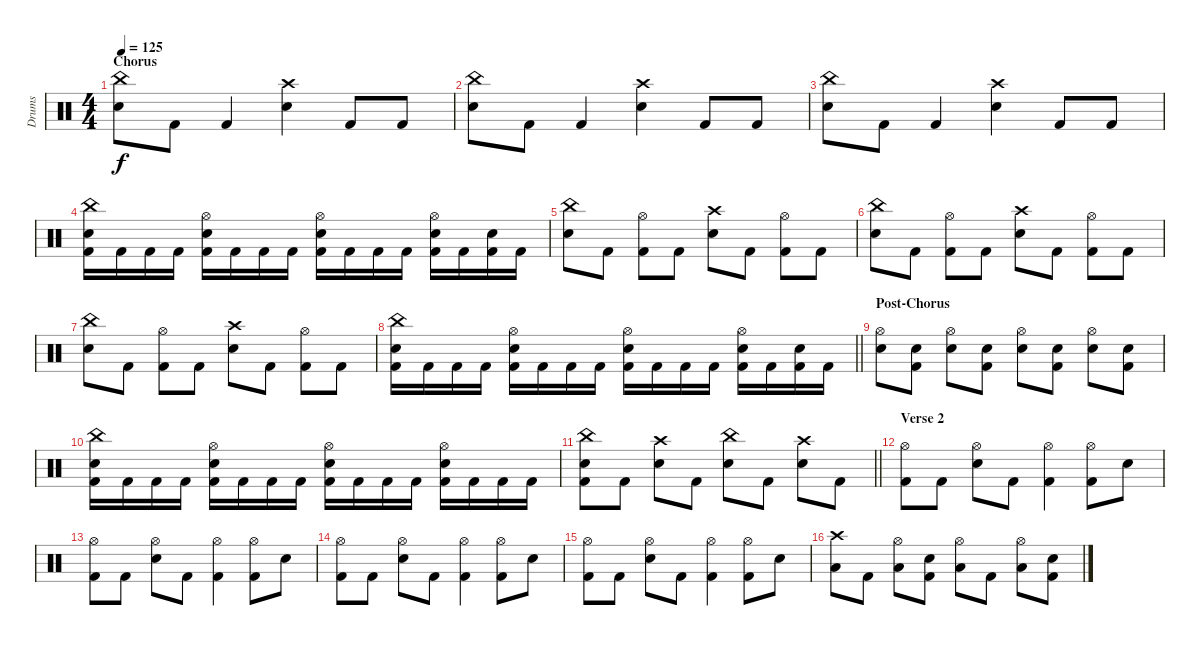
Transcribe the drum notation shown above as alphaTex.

\track ("Drums" "Drums") {instrument percussion}
\staff {score}
\articulation defaults
\ts (4 4)
\section ("" "Chorus")
\tempo 125
\clef neutral
\ks c
("China (hit)" "Electric Snare (hit)").8{dy f} "Kick (hit) 2".8 "Kick (hit) 2".4 ("Crash high (hit)" "Electric Snare (hit)").4 "Kick (hit) 2".8 "Kick (hit) 2".8 |
("China (hit)" "Electric Snare (hit)").8 "Kick (hit) 2".8 "Kick (hit) 2".4 ("Crash high (hit)" "Electric Snare (hit)").4 "Kick (hit) 2".8 "Kick (hit) 2".8 |
("China (hit)" "Electric Snare (hit)").8 "Kick (hit) 2".8 "Kick (hit) 2".4 ("Crash high (hit)" "Electric Snare (hit)").4 "Kick (hit) 2".8 "Kick (hit) 2".8 |
("China (hit)" "Kick (hit) 2" "Electric Snare (hit)").16 "Kick (hit) 2".16 "Kick (hit) 2".16 "Kick (hit) 2".16 ("Hi-Hat (open)" "Kick (hit) 2" "Electric Snare (hit)").16 "Kick (hit) 2".16 "Kick (hit) 2".16 "Kick (hit) 2".16 ("Hi-Hat (open)" "Kick (hit) 2" "Electric Snare (hit)").16 "Kick (hit) 2".16 "Kick (hit) 2".16 "Kick (hit) 2".16 ("Hi-Hat (open)" "Kick (hit) 2" "Electric Snare (hit)").16 "Kick (hit) 2".16 ("Kick (hit) 2" "Electric Snare (hit)").16 "Kick (hit) 2".16 |
("China (hit)" "Electric Snare (hit)").8 "Kick (hit) 2".8 ("Hi-Hat (open)" "Kick (hit) 2").8 "Kick (hit) 2".8 ("Crash high (hit)" "Electric Snare (hit)").8 "Kick (hit) 2".8 ("Hi-Hat (open)" "Kick (hit) 2").8 "Kick (hit) 2".8 |
("China (hit)" "Electric Snare (hit)").8 "Kick (hit) 2".8 ("Hi-Hat (open)" "Kick (hit) 2").8 "Kick (hit) 2".8 ("Crash high (hit)" "Electric Snare (hit)").8 "Kick (hit) 2".8 ("Hi-Hat (open)" "Kick (hit) 2").8 "Kick (hit) 2".8 |
("China (hit)" "Electric Snare (hit)").8 "Kick (hit) 2".8 ("Hi-Hat (open)" "Kick (hit) 2").8 "Kick (hit) 2".8 ("Crash high (hit)" "Electric Snare (hit)").8 "Kick (hit) 2".8 ("Hi-Hat (open)" "Kick (hit) 2").8 "Kick (hit) 2".8 |
\barLineRight lightlight
("China (hit)" "Kick (hit) 2" "Electric Snare (hit)").16 "Kick (hit) 2".16 "Kick (hit) 2".16 "Kick (hit) 2".16 ("Hi-Hat (open)" "Kick (hit) 2" "Electric Snare (hit)").16 "Kick (hit) 2".16 "Kick (hit) 2".16 "Kick (hit) 2".16 ("Hi-Hat (open)" "Kick (hit) 2" "Electric Snare (hit)").16 "Kick (hit) 2".16 "Kick (hit) 2".16 "Kick (hit) 2".16 ("Hi-Hat (open)" "Kick (hit) 2" "Electric Snare (hit)").16 "Kick (hit) 2".16 ("Kick (hit) 2" "Electric Snare (hit)").16 "Kick (hit) 2".16 |
\section ("" "Post-Chorus")
("Hi-Hat (open)" "Electric Snare (hit)").8 ("Kick (hit) 2" "Electric Snare (hit)").8 ("Hi-Hat (open)" "Electric Snare (hit)").8 ("Kick (hit) 2" "Electric Snare (hit)").8 ("Hi-Hat (open)" "Electric Snare (hit)").8 ("Kick (hit) 2" "Electric Snare (hit)").8 ("Hi-Hat (open)" "Electric Snare (hit)").8 ("Kick (hit) 2" "Electric Snare (hit)").8 |
("China (hit)" "Kick (hit) 2" "Electric Snare (hit)").16 "Kick (hit) 2".16 "Kick (hit) 2".16 "Kick (hit) 2".16 ("Hi-Hat (open)" "Kick (hit) 2" "Electric Snare (hit)").16 "Kick (hit) 2".16 "Kick (hit) 2".16 "Kick (hit) 2".16 ("Hi-Hat (open)" "Kick (hit) 2" "Electric Snare (hit)").16 "Kick (hit) 2".16 "Kick (hit) 2".16 "Kick (hit) 2".16 ("Hi-Hat (open)" "Kick (hit) 2" "Electric Snare (hit)").16 "Kick (hit) 2".16 "Kick (hit) 2".16 "Kick (hit) 2".16 |
\barLineRight lightlight
("China (hit)" "Kick (hit) 2" "Electric Snare (hit)").8 "Kick (hit) 2".8 ("Crash high (hit)" "Electric Snare (hit)").8 "Kick (hit) 2".8 ("China (hit)" "Electric Snare (hit)").8 "Kick (hit) 2".8 ("Crash high (hit)" "Electric Snare (hit)").8 "Kick (hit) 2".8 |
\section ("" "Verse 2")
("Hi-Hat (open)" "Kick (hit) 2").8 "Kick (hit) 2".8 ("Hi-Hat (open)" "Electric Snare (hit)").8 "Kick (hit) 2".8 ("Hi-Hat (open)" "Kick (hit) 2").4 ("Hi-Hat (open)" "Kick (hit) 2").8 "Electric Snare (hit)".8 |
("Hi-Hat (open)" "Kick (hit) 2").8 "Kick (hit) 2".8 ("Hi-Hat (open)" "Electric Snare (hit)").8 "Kick (hit) 2".8 ("Hi-Hat (open)" "Kick (hit) 2").4 ("Hi-Hat (open)" "Kick (hit) 2").8 "Electric Snare (hit)".8 |
("Hi-Hat (open)" "Kick (hit) 2").8 "Kick (hit) 2".8 ("Hi-Hat (open)" "Electric Snare (hit)").8 "Kick (hit) 2".8 ("Hi-Hat (open)" "Kick (hit) 2").4 ("Hi-Hat (open)" "Kick (hit) 2").8 "Electric Snare (hit)".8 |
("Hi-Hat (open)" "Kick (hit) 2").8 "Kick (hit) 2".8 ("Hi-Hat (open)" "Electric Snare (hit)").8 "Kick (hit) 2".8 ("Hi-Hat (open)" "Kick (hit) 2").4 ("Hi-Hat (open)" "Kick (hit) 2").8 "Electric Snare (hit)".8 |
("Crash high (hit)" "Low Tom (hit)").8 "Kick (hit) 2".8 ("Hi-Hat (open)" "Low Tom (hit)").8 ("Kick (hit) 2" "Electric Snare (hit)").8 ("Hi-Hat (open)" "Low Tom (hit)").8 "Kick (hit) 2".8 ("Hi-Hat (open)" "Low Tom (hit)").8 ("Kick (hit) 2" "Electric Snare (hit)").8
